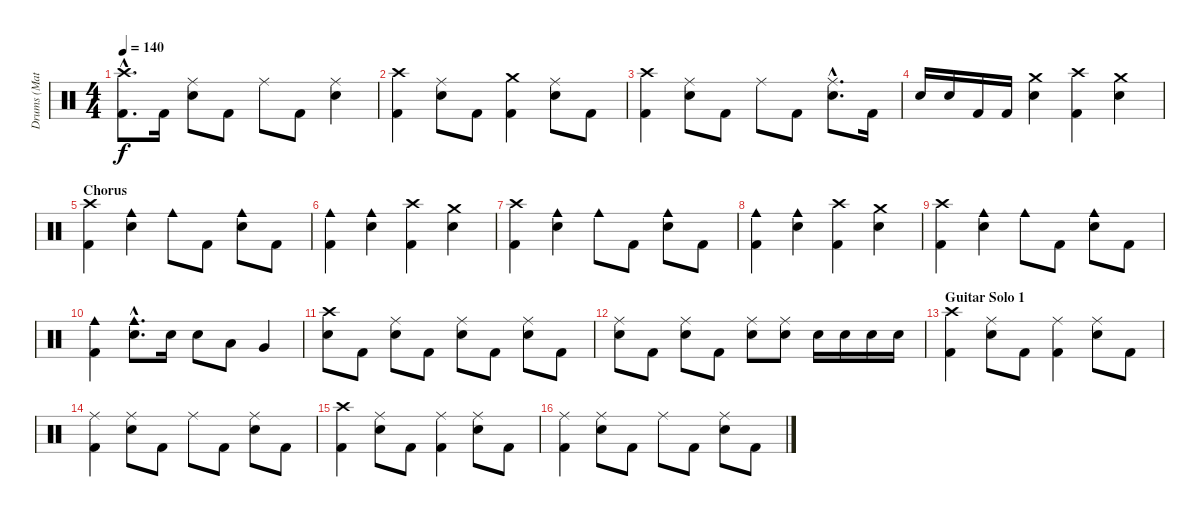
\track ("Drums (Matt)" "Drums (Mat") {instrument percussion}
\staff {score}
\articulation defaults
\ts (4 4)
\tempo 140
\clef neutral
\ks c
("Crash high (hit)"{hac} "Kick (hit) 2"{hac}).8{d dy f} "Kick (hit) 2".16 ("Ride (middle)" "Snare (hit) 2").8 "Kick (hit) 2".8 "Ride (middle)".8 "Kick (hit) 2".8 ("Ride (middle)" "Snare (hit) 2").4 |
("Crash high (hit)" "Kick (hit) 2").4 ("Ride (middle)" "Snare (hit) 2").8 "Kick (hit) 2".8 ("Crash medium (hit)" "Kick (hit) 2").4 ("Ride (middle)" "Snare (hit) 2").8 "Kick (hit) 2".8 |
("Crash high (hit)" "Kick (hit) 2").4 ("Ride (middle)" "Snare (hit) 2").8 "Kick (hit) 2".8 "Ride (middle)".8 "Kick (hit) 2".8 ("Ride (middle)"{hac} "Snare (hit) 2"{hac}).8{d} "Kick (hit) 2".16 |
"Snare (hit) 2".16 "Snare (hit) 2".16 "Kick (hit) 2".16 "Kick (hit) 2".16 ("Crash medium (hit)" "Snare (hit) 2").4 ("Crash high (hit)" "Kick (hit) 2").4 ("Crash medium (hit)" "Snare (hit) 2").4 |
\section ("" "Chorus")
("Crash high (hit)" "Kick (hit) 2").4 ("Cowbell medium (hit)" "Snare (hit) 2").4 "Cowbell medium (hit)".8 "Kick (hit) 2".8 ("Cowbell medium (hit)" "Snare (hit) 2").8 "Kick (hit) 2".8 |
("Cowbell medium (hit)" "Kick (hit) 2").4 ("Cowbell medium (hit)" "Snare (hit) 2").4 ("Crash high (hit)" "Kick (hit) 2").4 ("Crash medium (hit)" "Snare (hit) 2").4 |
("Crash high (hit)" "Kick (hit) 2").4 ("Cowbell medium (hit)" "Snare (hit) 2").4 "Cowbell medium (hit)".8 "Kick (hit) 2".8 ("Cowbell medium (hit)" "Snare (hit) 2").8 "Kick (hit) 2".8 |
("Cowbell medium (hit)" "Kick (hit) 2").4 ("Cowbell medium (hit)" "Snare (hit) 2").4 ("Crash high (hit)" "Kick (hit) 2").4 ("Crash medium (hit)" "Snare (hit) 2").4 |
("Crash high (hit)" "Kick (hit) 2").4 ("Cowbell medium (hit)" "Snare (hit) 2").4 "Cowbell medium (hit)".8 "Kick (hit) 2".8 ("Cowbell medium (hit)" "Snare (hit) 2").8 "Kick (hit) 2".8 |
("Cowbell medium (hit)" "Kick (hit) 2").4 ("Cowbell medium (hit)"{hac} "Snare (hit) 2"{hac}).8{d} "Snare (hit) 2".16 "Snare (hit) 2".8 "Low Tom (hit)".8 "Very Low Tom (hit)".4 |
("Crash high (hit)" "Snare (hit) 2").8 "Kick (hit) 2".8 ("Ride (middle)" "Snare (hit) 2").8 "Kick (hit) 2".8 ("Ride (middle)" "Snare (hit) 2").8 "Kick (hit) 2".8 ("Ride (middle)" "Snare (hit) 2").8 "Kick (hit) 2".8 |
("Ride (middle)" "Snare (hit) 2").8 "Kick (hit) 2".8 ("Ride (middle)" "Snare (hit) 2").8 "Kick (hit) 2".8 ("Ride (middle)" "Snare (hit) 2").8 ("Ride (middle)" "Snare (hit) 2").8 "Snare (hit) 2".16 "Snare (hit) 2".16 "Snare (hit) 2".16 "Snare (hit) 2".16 |
\section ("" "Guitar Solo 1")
("Crash high (hit)" "Kick (hit) 2").4 ("Ride (middle)" "Snare (hit) 2").8 "Kick (hit) 2".8 ("Ride (middle)" "Kick (hit) 2").4 ("Ride (middle)" "Snare (hit) 2").8 "Kick (hit) 2".8 |
("Ride (middle)" "Kick (hit) 2").4 ("Ride (middle)" "Snare (hit) 2").8 "Kick (hit) 2".8 "Ride (middle)".8 "Kick (hit) 2".8 ("Ride (middle)" "Snare (hit) 2").8 "Kick (hit) 2".8 |
("Crash high (hit)" "Kick (hit) 2").4 ("Ride (middle)" "Snare (hit) 2").8 "Kick (hit) 2".8 ("Ride (middle)" "Kick (hit) 2").4 ("Ride (middle)" "Snare (hit) 2").8 "Kick (hit) 2".8 |
("Ride (middle)" "Kick (hit) 2").4 ("Ride (middle)" "Snare (hit) 2").8 "Kick (hit) 2".8 "Ride (middle)".8 "Kick (hit) 2".8 ("Ride (middle)" "Snare (hit) 2").8 "Kick (hit) 2".8
